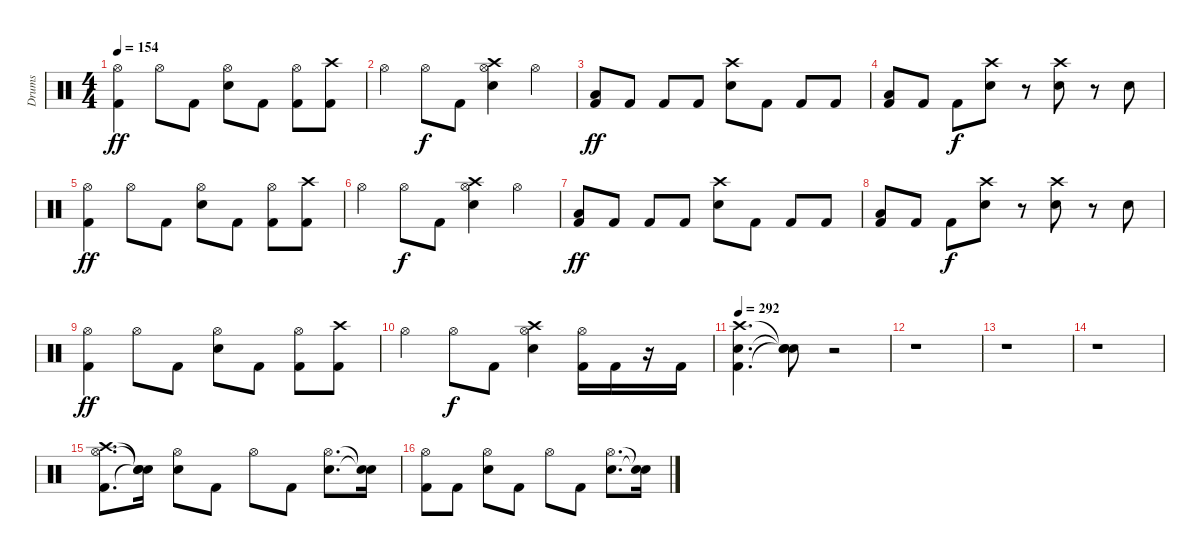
\track ("Drums" "Drums") {instrument percussion}
\staff {score}
\articulation defaults
\ts (4 4)
\tempo 154
\clef neutral
\ks c
("Kick (hit) 2" "Hi-Hat (open)").4{dy ff} "Hi-Hat (open)".8 "Kick (hit) 2".8 ("Snare (hit) 2" "Hi-Hat (open)").8 "Kick (hit) 2".8 ("Kick (hit) 2" "Hi-Hat (open)").8 ("Kick (hit) 2" "Crash high (hit)").8 |
"Hi-Hat (open)".4 "Hi-Hat (open)".8{dy f} "Kick (hit) 2".8 ("Snare (hit) 2" "Hi-Hat (open)" "Crash high (hit)").4 "Hi-Hat (open)".4 |
("Kick (hit) 2" "Low Floor Tom (hit)").8{dy ff} "Kick (hit) 2".8 "Kick (hit) 2".8 "Kick (hit) 2".8 ("Snare (hit) 2" "Crash high (hit)").8 "Kick (hit) 2".8 "Kick (hit) 2".8 "Kick (hit) 2".8 |
("Kick (hit) 2" "Low Floor Tom (hit)").8 "Kick (hit) 2".8 "Kick (hit) 2".8{dy f} ("Snare (hit) 2" "Crash high (hit)").8 r.8 ("Snare (hit) 2" "Crash high (hit)").8 r.8 "Snare (hit) 2".8 |
("Kick (hit) 2" "Hi-Hat (open)").4{dy ff} "Hi-Hat (open)".8 "Kick (hit) 2".8 ("Snare (hit) 2" "Hi-Hat (open)").8 "Kick (hit) 2".8 ("Kick (hit) 2" "Hi-Hat (open)").8 ("Kick (hit) 2" "Crash high (hit)").8 |
"Hi-Hat (open)".4 "Hi-Hat (open)".8{dy f} "Kick (hit) 2".8 ("Snare (hit) 2" "Hi-Hat (open)" "Crash high (hit)").4 "Hi-Hat (open)".4 |
("Kick (hit) 2" "Low Floor Tom (hit)").8{dy ff} "Kick (hit) 2".8 "Kick (hit) 2".8 "Kick (hit) 2".8 ("Snare (hit) 2" "Crash high (hit)").8 "Kick (hit) 2".8 "Kick (hit) 2".8 "Kick (hit) 2".8 |
("Kick (hit) 2" "Low Floor Tom (hit)").8 "Kick (hit) 2".8 "Kick (hit) 2".8{dy f} ("Snare (hit) 2" "Crash high (hit)").8 r.8 ("Snare (hit) 2" "Crash high (hit)").8 r.8 "Snare (hit) 2".8 |
("Kick (hit) 2" "Hi-Hat (open)").4{dy ff} "Hi-Hat (open)".8 "Kick (hit) 2".8 ("Snare (hit) 2" "Hi-Hat (open)").8 "Kick (hit) 2".8 ("Kick (hit) 2" "Hi-Hat (open)").8 ("Kick (hit) 2" "Crash high (hit)").8 |
"Hi-Hat (open)".4 "Hi-Hat (open)".8{dy f} "Kick (hit) 2".8 ("Snare (hit) 2" "Hi-Hat (open)" "Crash high (hit)").4 ("Kick (hit) 2" "Hi-Hat (open)").16 "Kick (hit) 2".16 r.16 "Kick (hit) 2".16 |
\tempo 292
("Kick (hit) 2" "Snare (hit) 2" "Crash high (hit)").4{d} ("Snare (hit)"{t} "Snare (hit)"{t} "Snare (hit)"{t}).8 r.2 |
r.1 |
r.1 |
r.1 |
("Kick (hit) 2" "Hi-Hat (open)" "Crash high (hit)").8{d} ("Snare (hit)"{t} "Snare (hit)"{t} "Snare (hit)"{t}).16 ("Snare (hit) 2" "Hi-Hat (open)").8 "Kick (hit) 2".8 "Hi-Hat (open)".8 "Kick (hit) 2".8 ("Snare (hit) 2" "Hi-Hat (open)").8{d} ("Snare (hit)"{t} "Snare (hit)"{t}).16 |
("Kick (hit) 2" "Hi-Hat (open)").8 "Kick (hit) 2".8 ("Snare (hit) 2" "Hi-Hat (open)").8 "Kick (hit) 2".8 "Hi-Hat (open)".8 "Kick (hit) 2".8 ("Snare (hit) 2" "Hi-Hat (open)").8{d} ("Snare (hit)"{t} "Snare (hit)"{t}).16
